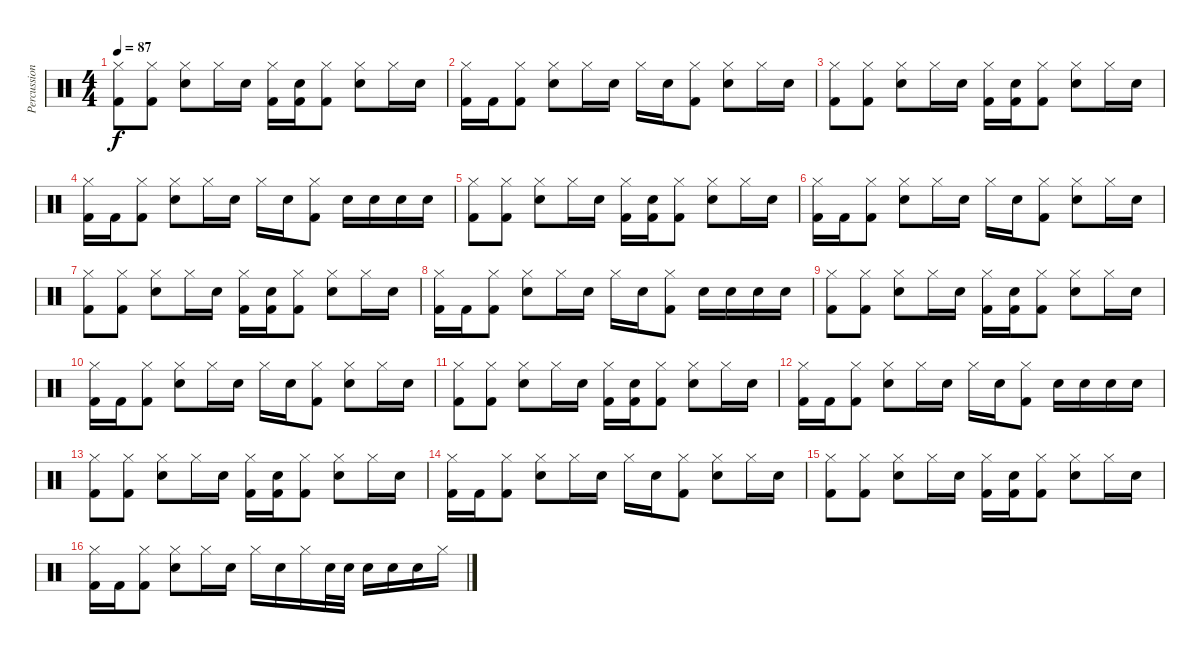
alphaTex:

\track ("Percussion" "Percussion") {instrument percussion}
\staff {score}
\articulation defaults
\ts (4 4)
\tempo 87
\clef neutral
\ks c
("Hi-Hat (closed)" "Kick (hit) 2").8{dy f} ("Hi-Hat (closed)" "Kick (hit) 2").8 ("Hi-Hat (closed)" "Electric Snare (hit)").8 "Hi-Hat (closed)".16 "Electric Snare (hit)".16 ("Hi-Hat (closed)" "Kick (hit) 2").16 ("Electric Snare (hit)" "Kick (hit) 2").16 ("Hi-Hat (closed)" "Kick (hit) 2").8 ("Hi-Hat (closed)" "Electric Snare (hit)").8 "Hi-Hat (closed)".16 "Electric Snare (hit)".16 |
("Hi-Hat (closed)" "Kick (hit) 2").16 "Kick (hit) 2".16 ("Hi-Hat (closed)" "Kick (hit) 2").8 ("Hi-Hat (closed)" "Electric Snare (hit)").8 "Hi-Hat (closed)".16 "Electric Snare (hit)".16 "Hi-Hat (closed)".16 "Electric Snare (hit)".16 ("Hi-Hat (closed)" "Kick (hit) 2").8 ("Hi-Hat (closed)" "Electric Snare (hit)").8 "Hi-Hat (closed)".16 "Electric Snare (hit)".16 |
("Hi-Hat (closed)" "Kick (hit) 2").8 ("Hi-Hat (closed)" "Kick (hit) 2").8 ("Hi-Hat (closed)" "Electric Snare (hit)").8 "Hi-Hat (closed)".16 "Electric Snare (hit)".16 ("Hi-Hat (closed)" "Kick (hit) 2").16 ("Electric Snare (hit)" "Kick (hit) 2").16 ("Hi-Hat (closed)" "Kick (hit) 2").8 ("Hi-Hat (closed)" "Electric Snare (hit)").8 "Hi-Hat (closed)".16 "Electric Snare (hit)".16 |
("Hi-Hat (closed)" "Kick (hit) 2").16 "Kick (hit) 2".16 ("Hi-Hat (closed)" "Kick (hit) 2").8 ("Hi-Hat (closed)" "Electric Snare (hit)").8 "Hi-Hat (closed)".16 "Electric Snare (hit)".16 "Hi-Hat (closed)".16 "Electric Snare (hit)".16 ("Hi-Hat (closed)" "Kick (hit) 2").8 "Electric Snare (hit)".16 "Electric Snare (hit)".16 "Electric Snare (hit)".16 "Electric Snare (hit)".16 |
("Hi-Hat (closed)" "Kick (hit) 2").8 ("Hi-Hat (closed)" "Kick (hit) 2").8 ("Hi-Hat (closed)" "Electric Snare (hit)").8 "Hi-Hat (closed)".16 "Electric Snare (hit)".16 ("Hi-Hat (closed)" "Kick (hit) 2").16 ("Electric Snare (hit)" "Kick (hit) 2").16 ("Hi-Hat (closed)" "Kick (hit) 2").8 ("Hi-Hat (closed)" "Electric Snare (hit)").8 "Hi-Hat (closed)".16 "Electric Snare (hit)".16 |
("Hi-Hat (closed)" "Kick (hit) 2").16 "Kick (hit) 2".16 ("Hi-Hat (closed)" "Kick (hit) 2").8 ("Hi-Hat (closed)" "Electric Snare (hit)").8 "Hi-Hat (closed)".16 "Electric Snare (hit)".16 "Hi-Hat (closed)".16 "Electric Snare (hit)".16 ("Hi-Hat (closed)" "Kick (hit) 2").8 ("Hi-Hat (closed)" "Electric Snare (hit)").8 "Hi-Hat (closed)".16 "Electric Snare (hit)".16 |
("Hi-Hat (closed)" "Kick (hit) 2").8 ("Hi-Hat (closed)" "Kick (hit) 2").8 ("Hi-Hat (closed)" "Electric Snare (hit)").8 "Hi-Hat (closed)".16 "Electric Snare (hit)".16 ("Hi-Hat (closed)" "Kick (hit) 2").16 ("Electric Snare (hit)" "Kick (hit) 2").16 ("Hi-Hat (closed)" "Kick (hit) 2").8 ("Hi-Hat (closed)" "Electric Snare (hit)").8 "Hi-Hat (closed)".16 "Electric Snare (hit)".16 |
("Hi-Hat (closed)" "Kick (hit) 2").16 "Kick (hit) 2".16 ("Hi-Hat (closed)" "Kick (hit) 2").8 ("Hi-Hat (closed)" "Electric Snare (hit)").8 "Hi-Hat (closed)".16 "Electric Snare (hit)".16 "Hi-Hat (closed)".16 "Electric Snare (hit)".16 ("Hi-Hat (closed)" "Kick (hit) 2").8 "Electric Snare (hit)".16 "Electric Snare (hit)".16 "Electric Snare (hit)".16 "Electric Snare (hit)".16 |
("Hi-Hat (closed)" "Kick (hit) 2").8 ("Hi-Hat (closed)" "Kick (hit) 2").8 ("Hi-Hat (closed)" "Electric Snare (hit)").8 "Hi-Hat (closed)".16 "Electric Snare (hit)".16 ("Hi-Hat (closed)" "Kick (hit) 2").16 ("Electric Snare (hit)" "Kick (hit) 2").16 ("Hi-Hat (closed)" "Kick (hit) 2").8 ("Hi-Hat (closed)" "Electric Snare (hit)").8 "Hi-Hat (closed)".16 "Electric Snare (hit)".16 |
("Hi-Hat (closed)" "Kick (hit) 2").16 "Kick (hit) 2".16 ("Hi-Hat (closed)" "Kick (hit) 2").8 ("Hi-Hat (closed)" "Electric Snare (hit)").8 "Hi-Hat (closed)".16 "Electric Snare (hit)".16 "Hi-Hat (closed)".16 "Electric Snare (hit)".16 ("Hi-Hat (closed)" "Kick (hit) 2").8 ("Hi-Hat (closed)" "Electric Snare (hit)").8 "Hi-Hat (closed)".16 "Electric Snare (hit)".16 |
("Hi-Hat (closed)" "Kick (hit) 2").8 ("Hi-Hat (closed)" "Kick (hit) 2").8 ("Hi-Hat (closed)" "Electric Snare (hit)").8 "Hi-Hat (closed)".16 "Electric Snare (hit)".16 ("Hi-Hat (closed)" "Kick (hit) 2").16 ("Electric Snare (hit)" "Kick (hit) 2").16 ("Hi-Hat (closed)" "Kick (hit) 2").8 ("Hi-Hat (closed)" "Electric Snare (hit)").8 "Hi-Hat (closed)".16 "Electric Snare (hit)".16 |
("Hi-Hat (closed)" "Kick (hit) 2").16 "Kick (hit) 2".16 ("Hi-Hat (closed)" "Kick (hit) 2").8 ("Hi-Hat (closed)" "Electric Snare (hit)").8 "Hi-Hat (closed)".16 "Electric Snare (hit)".16 "Hi-Hat (closed)".16 "Electric Snare (hit)".16 ("Hi-Hat (closed)" "Kick (hit) 2").8 "Electric Snare (hit)".16 "Electric Snare (hit)".16 "Electric Snare (hit)".16 "Electric Snare (hit)".16 |
("Hi-Hat (closed)" "Kick (hit) 2").8 ("Hi-Hat (closed)" "Kick (hit) 2").8 ("Hi-Hat (closed)" "Electric Snare (hit)").8 "Hi-Hat (closed)".16 "Electric Snare (hit)".16 ("Hi-Hat (closed)" "Kick (hit) 2").16 ("Electric Snare (hit)" "Kick (hit) 2").16 ("Hi-Hat (closed)" "Kick (hit) 2").8 ("Hi-Hat (closed)" "Electric Snare (hit)").8 "Hi-Hat (closed)".16 "Electric Snare (hit)".16 |
("Hi-Hat (closed)" "Kick (hit) 2").16 "Kick (hit) 2".16 ("Hi-Hat (closed)" "Kick (hit) 2").8 ("Hi-Hat (closed)" "Electric Snare (hit)").8 "Hi-Hat (closed)".16 "Electric Snare (hit)".16 "Hi-Hat (closed)".16 "Electric Snare (hit)".16 ("Hi-Hat (closed)" "Kick (hit) 2").8 ("Hi-Hat (closed)" "Electric Snare (hit)").8 "Hi-Hat (closed)".16 "Electric Snare (hit)".16 |
("Hi-Hat (closed)" "Kick (hit) 2").8 ("Hi-Hat (closed)" "Kick (hit) 2").8 ("Hi-Hat (closed)" "Electric Snare (hit)").8 "Hi-Hat (closed)".16 "Electric Snare (hit)".16 ("Hi-Hat (closed)" "Kick (hit) 2").16 ("Electric Snare (hit)" "Kick (hit) 2").16 ("Hi-Hat (closed)" "Kick (hit) 2").8 ("Hi-Hat (closed)" "Electric Snare (hit)").8 "Hi-Hat (closed)".16 "Electric Snare (hit)".16 |
("Hi-Hat (closed)" "Kick (hit) 2").16 "Kick (hit) 2".16 ("Hi-Hat (closed)" "Kick (hit) 2").8 ("Hi-Hat (closed)" "Electric Snare (hit)").8 "Hi-Hat (closed)".16 "Electric Snare (hit)".16 "Hi-Hat (closed)".16 "Electric Snare (hit)".16 "Hi-Hat (closed)".16 "Electric Snare (hit)".32 "Electric Snare (hit)".32 "Electric Snare (hit)".16 "Electric Snare (hit)".16 "Electric Snare (hit)".16 "Hi-Hat (closed)".16
